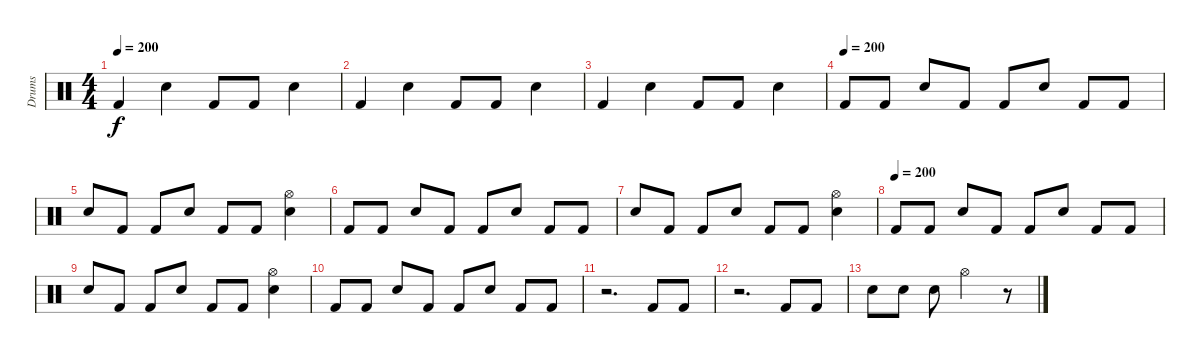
\track ("Drums" "Drums") {instrument percussion}
\staff {score}
\articulation defaults
\ts (4 4)
\tempo 200
\clef neutral
\ks c "Kick (hit) 2".4{dy f} "Snare (hit) 2".4 "Kick (hit) 2".8 "Kick (hit) 2".8 "Snare (hit) 2".4
|
"Kick (hit) 2".4 "Snare (hit) 2".4 "Kick (hit) 2".8 "Kick (hit) 2".8 "Snare (hit) 2".4 |
"Kick (hit) 2".4 "Snare (hit) 2".4 "Kick (hit) 2".8 "Kick (hit) 2".8 "Snare (hit) 2".4 |
\tempo (200)
"Kick (hit) 2".8 "Kick (hit) 2".8 "Snare (hit) 2".8 "Kick (hit) 2".8 "Kick (hit) 2".8 "Snare (hit) 2".8 "Kick (hit) 2".8 "Kick (hit) 2".8 |
"Snare (hit) 2".8 "Kick (hit) 2".8 "Kick (hit) 2".8 "Snare (hit) 2".8 "Kick (hit) 2".8 "Kick (hit) 2".8 ("Hi-Hat (open)" "Snare (hit) 2").4 |
"Kick (hit) 2".8 "Kick (hit) 2".8 "Snare (hit) 2".8 "Kick (hit) 2".8 "Kick (hit) 2".8 "Snare (hit) 2".8 "Kick (hit) 2".8 "Kick (hit) 2".8 |
"Snare (hit) 2".8 "Kick (hit) 2".8 "Kick (hit) 2".8 "Snare (hit) 2".8 "Kick (hit) 2".8 "Kick (hit) 2".8 ("Hi-Hat (open)" "Snare (hit) 2").4 |
\tempo (200)
"Kick (hit) 2".8 "Kick (hit) 2".8 "Snare (hit) 2".8 "Kick (hit) 2".8 "Kick (hit) 2".8 "Snare (hit) 2".8 "Kick (hit) 2".8 "Kick (hit) 2".8 |
"Snare (hit) 2".8 "Kick (hit) 2".8 "Kick (hit) 2".8 "Snare (hit) 2".8 "Kick (hit) 2".8 "Kick (hit) 2".8 ("Hi-Hat (open)" "Snare (hit) 2").4 |
"Kick (hit) 2".8 "Kick (hit) 2".8 "Snare (hit) 2".8 "Kick (hit) 2".8 "Kick (hit) 2".8 "Snare (hit) 2".8 "Kick (hit) 2".8 "Kick (hit) 2".8 |
r.2{d} "Kick (hit) 2".8 "Kick (hit) 2".8 |
r.2{d} "Kick (hit) 2".8 "Kick (hit) 2".8 |
"Snare (hit) 2".8 "Snare (hit) 2".8 "Snare (hit) 2".8 "Hi-Hat (open)".2 r.8
